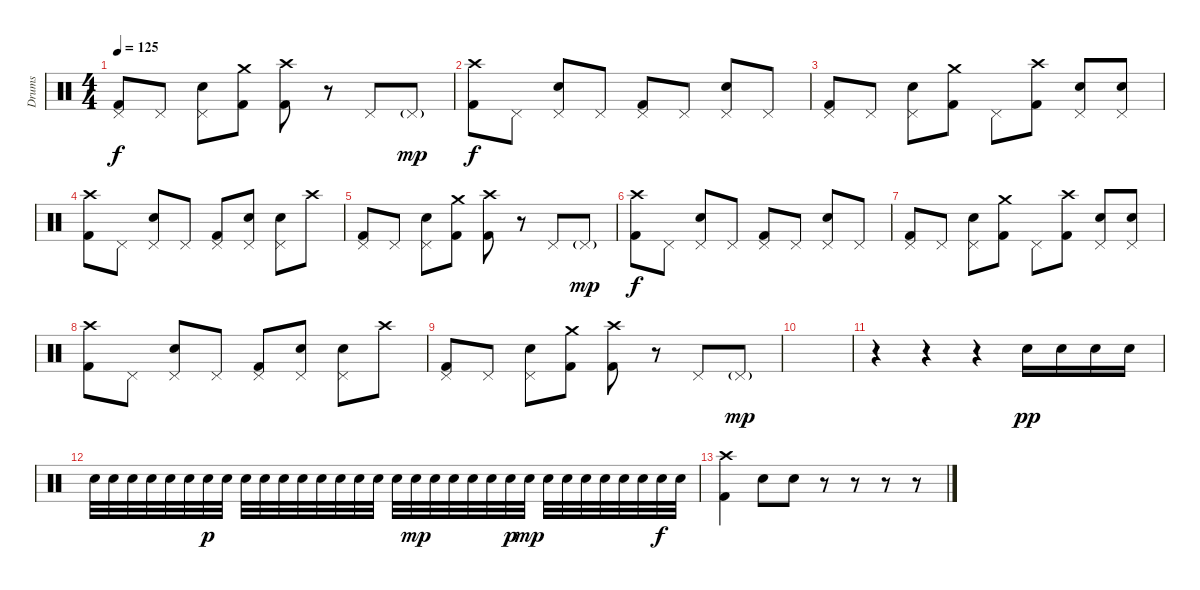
\track ("Drums" "Drums") {instrument percussion}
\staff {score}
\articulation defaults
\ts (4 4)
\tempo 125
\clef neutral
\ks c
("Pedal Hi-Hat (hit)" "Kick (hit) 2").8{dy f} "Pedal Hi-Hat (hit)".8 ("Pedal Hi-Hat (hit)" "Snare (hit) 2").8 ("Crash medium (hit)" "Kick (hit) 2").8 ("Crash high (hit)" "Kick (hit) 2").8 r.8 "Pedal Hi-Hat (hit)".8 "Pedal Hi-Hat (hit)"{g}.8{dy mp} |
("Crash high (hit)" "Kick (hit) 2").8{dy f} "Pedal Hi-Hat (hit)".8 ("Pedal Hi-Hat (hit)" "Snare (hit) 2").8 "Pedal Hi-Hat (hit)".8 ("Pedal Hi-Hat (hit)" "Kick (hit) 2").8 "Pedal Hi-Hat (hit)".8 ("Pedal Hi-Hat (hit)" "Snare (hit) 2").8 "Pedal Hi-Hat (hit)".8 |
("Pedal Hi-Hat (hit)" "Kick (hit) 2").8 "Pedal Hi-Hat (hit)".8 ("Pedal Hi-Hat (hit)" "Snare (hit) 2").8 ("Crash medium (hit)" "Kick (hit) 2").8 "Pedal Hi-Hat (hit)".8 ("Crash high (hit)" "Kick (hit) 2").8 ("Pedal Hi-Hat (hit)" "Snare (hit) 2").8 ("Pedal Hi-Hat (hit)" "Snare (hit) 2").8 |
("Crash high (hit)" "Kick (hit) 2").8 "Pedal Hi-Hat (hit)".8 ("Pedal Hi-Hat (hit)" "Snare (hit) 2").8 "Pedal Hi-Hat (hit)".8 ("Pedal Hi-Hat (hit)" "Kick (hit) 2").8 ("Pedal Hi-Hat (hit)" "Snare (hit) 2").8 ("Pedal Hi-Hat (hit)" "Snare (hit) 2").8 "Crash high (hit)".8 |
("Pedal Hi-Hat (hit)" "Kick (hit) 2").8 "Pedal Hi-Hat (hit)".8 ("Pedal Hi-Hat (hit)" "Snare (hit) 2").8 ("Crash medium (hit)" "Kick (hit) 2").8 ("Crash high (hit)" "Kick (hit) 2").8 r.8 "Pedal Hi-Hat (hit)".8 "Pedal Hi-Hat (hit)"{g}.8{dy mp} |
("Crash high (hit)" "Kick (hit) 2").8{dy f} "Pedal Hi-Hat (hit)".8 ("Pedal Hi-Hat (hit)" "Snare (hit) 2").8 "Pedal Hi-Hat (hit)".8 ("Pedal Hi-Hat (hit)" "Kick (hit) 2").8 "Pedal Hi-Hat (hit)".8 ("Pedal Hi-Hat (hit)" "Snare (hit) 2").8 "Pedal Hi-Hat (hit)".8 |
("Pedal Hi-Hat (hit)" "Kick (hit) 2").8 "Pedal Hi-Hat (hit)".8 ("Pedal Hi-Hat (hit)" "Snare (hit) 2").8 ("Crash medium (hit)" "Kick (hit) 2").8 "Pedal Hi-Hat (hit)".8 ("Crash high (hit)" "Kick (hit) 2").8 ("Pedal Hi-Hat (hit)" "Snare (hit) 2").8 ("Pedal Hi-Hat (hit)" "Snare (hit) 2").8 |
("Crash high (hit)" "Kick (hit) 2").8 "Pedal Hi-Hat (hit)".8 ("Pedal Hi-Hat (hit)" "Snare (hit) 2").8 "Pedal Hi-Hat (hit)".8 ("Pedal Hi-Hat (hit)" "Kick (hit) 2").8 ("Pedal Hi-Hat (hit)" "Snare (hit) 2").8 ("Pedal Hi-Hat (hit)" "Snare (hit) 2").8 "Crash high (hit)".8 |
("Pedal Hi-Hat (hit)" "Kick (hit) 2").8 "Pedal Hi-Hat (hit)".8 ("Pedal Hi-Hat (hit)" "Snare (hit) 2").8 ("Crash medium (hit)" "Kick (hit) 2").8 ("Crash high (hit)" "Kick (hit) 2").8 r.8 "Pedal Hi-Hat (hit)".8 "Pedal Hi-Hat (hit)"{g}.8{dy mp} |
|
r.4 r.4 r.4 "Snare (hit) 2".16{dy pp} "Snare (hit) 2".16 "Snare (hit) 2".16 "Snare (hit) 2".16 |
"Snare (hit) 2".32 "Snare (hit) 2".32 "Snare (hit) 2".32 "Snare (hit) 2".32 "Snare (hit) 2".32 "Snare (hit) 2".32 "Snare (hit) 2".32{dy p} "Snare (hit) 2".32 "Snare (hit) 2".32 "Snare (hit) 2".32 "Snare (hit) 2".32 "Snare (hit) 2".32 "Snare (hit) 2".32 "Snare (hit) 2".32 "Snare (hit) 2".32 "Snare (hit) 2".32 "Snare (hit) 2".32 "Snare (hit) 2".32{dy mp} "Snare (hit) 2".32 "Snare (hit) 2".32 "Snare (hit) 2".32 "Snare (hit) 2".32 "Snare (hit) 2".32{dy p} "Snare (hit) 2".32{dy mp} "Snare (hit) 2".32 "Snare (hit) 2".32 "Snare (hit) 2".32 "Snare (hit) 2".32 "Snare (hit) 2".32 "Snare (hit) 2".32 "Snare (hit) 2".32{dy f} "Snare (hit) 2".32 |
("Crash high (hit)" "Kick (hit) 2").4 "Snare (hit) 2".8 "Snare (hit) 2".8 r.8 r.8 r.8 r.8
